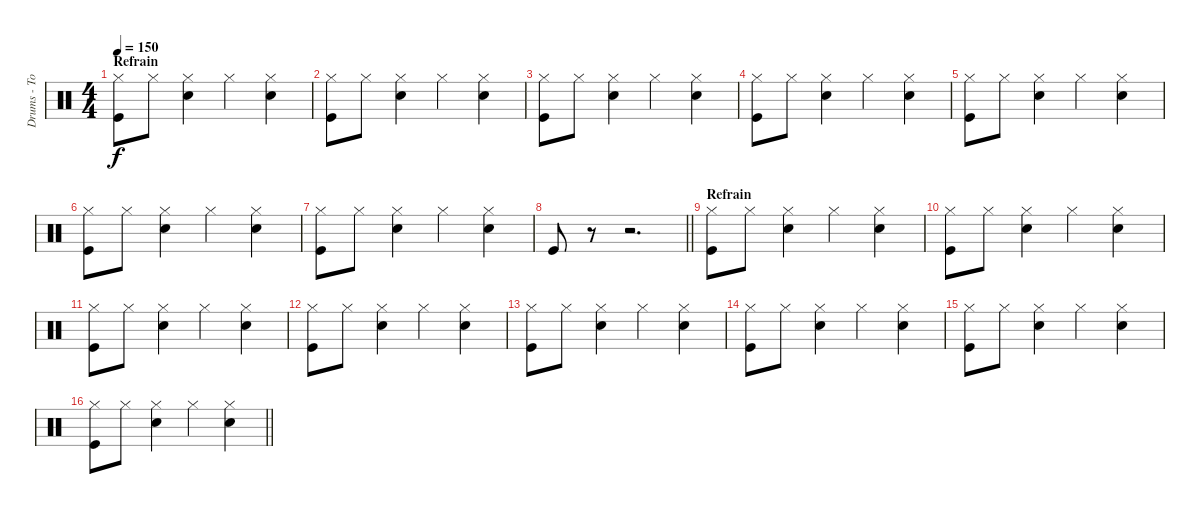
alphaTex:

\track ("Drums - Tobi Häuser" "Drums - To") {instrument percussion}
\staff {score}
\articulation defaults
\ts (4 4)
\section ("" "Refrain")
\tempo 150
\clef neutral
\ks c
("Hi-Hat (closed)" "Kick (hit)").8{dy f} "Hi-Hat (closed)".8 ("Hi-Hat (closed)" "Snare (hit) 2").4 "Hi-Hat (closed)".4 ("Hi-Hat (closed)" "Snare (hit) 2").4 |
("Hi-Hat (closed)" "Kick (hit)").8 "Hi-Hat (closed)".8 ("Hi-Hat (closed)" "Snare (hit) 2").4 "Hi-Hat (closed)".4 ("Hi-Hat (closed)" "Snare (hit) 2").4 |
("Hi-Hat (closed)" "Kick (hit)").8 "Hi-Hat (closed)".8 ("Hi-Hat (closed)" "Snare (hit) 2").4 "Hi-Hat (closed)".4 ("Hi-Hat (closed)" "Snare (hit) 2").4 |
("Hi-Hat (closed)" "Kick (hit)").8 "Hi-Hat (closed)".8 ("Hi-Hat (closed)" "Snare (hit) 2").4 "Hi-Hat (closed)".4 ("Hi-Hat (closed)" "Snare (hit) 2").4 |
("Hi-Hat (closed)" "Kick (hit)").8 "Hi-Hat (closed)".8 ("Hi-Hat (closed)" "Snare (hit) 2").4 "Hi-Hat (closed)".4 ("Hi-Hat (closed)" "Snare (hit) 2").4 |
("Hi-Hat (closed)" "Kick (hit)").8 "Hi-Hat (closed)".8 ("Hi-Hat (closed)" "Snare (hit) 2").4 "Hi-Hat (closed)".4 ("Hi-Hat (closed)" "Snare (hit) 2").4 |
("Hi-Hat (closed)" "Kick (hit)").8 "Hi-Hat (closed)".8 ("Hi-Hat (closed)" "Snare (hit) 2").4 "Hi-Hat (closed)".4 ("Hi-Hat (closed)" "Snare (hit) 2").4 |
\barLineRight lightlight "Kick (hit)".8
r.8 r.2{d} |
\section ("" "Refrain")
("Hi-Hat (closed)" "Kick (hit)").8 "Hi-Hat (closed)".8 ("Hi-Hat (closed)" "Snare (hit) 2").4 "Hi-Hat (closed)".4 ("Hi-Hat (closed)" "Snare (hit) 2").4 |
("Hi-Hat (closed)" "Kick (hit)").8 "Hi-Hat (closed)".8 ("Hi-Hat (closed)" "Snare (hit) 2").4 "Hi-Hat (closed)".4 ("Hi-Hat (closed)" "Snare (hit) 2").4 |
("Hi-Hat (closed)" "Kick (hit)").8 "Hi-Hat (closed)".8 ("Hi-Hat (closed)" "Snare (hit) 2").4 "Hi-Hat (closed)".4 ("Hi-Hat (closed)" "Snare (hit) 2").4 |
("Hi-Hat (closed)" "Kick (hit)").8 "Hi-Hat (closed)".8 ("Hi-Hat (closed)" "Snare (hit) 2").4 "Hi-Hat (closed)".4 ("Hi-Hat (closed)" "Snare (hit) 2").4 |
("Hi-Hat (closed)" "Kick (hit)").8 "Hi-Hat (closed)".8 ("Hi-Hat (closed)" "Snare (hit) 2").4 "Hi-Hat (closed)".4 ("Hi-Hat (closed)" "Snare (hit) 2").4 |
("Hi-Hat (closed)" "Kick (hit)").8 "Hi-Hat (closed)".8 ("Hi-Hat (closed)" "Snare (hit) 2").4 "Hi-Hat (closed)".4 ("Hi-Hat (closed)" "Snare (hit) 2").4 |
("Hi-Hat (closed)" "Kick (hit)").8 "Hi-Hat (closed)".8 ("Hi-Hat (closed)" "Snare (hit) 2").4 "Hi-Hat (closed)".4 ("Hi-Hat (closed)" "Snare (hit) 2").4 |
\barLineRight lightlight
("Hi-Hat (closed)" "Kick (hit)").8 "Hi-Hat (closed)".8 ("Hi-Hat (closed)" "Snare (hit) 2").4 "Hi-Hat (closed)".4 ("Hi-Hat (closed)" "Snare (hit) 2").4
